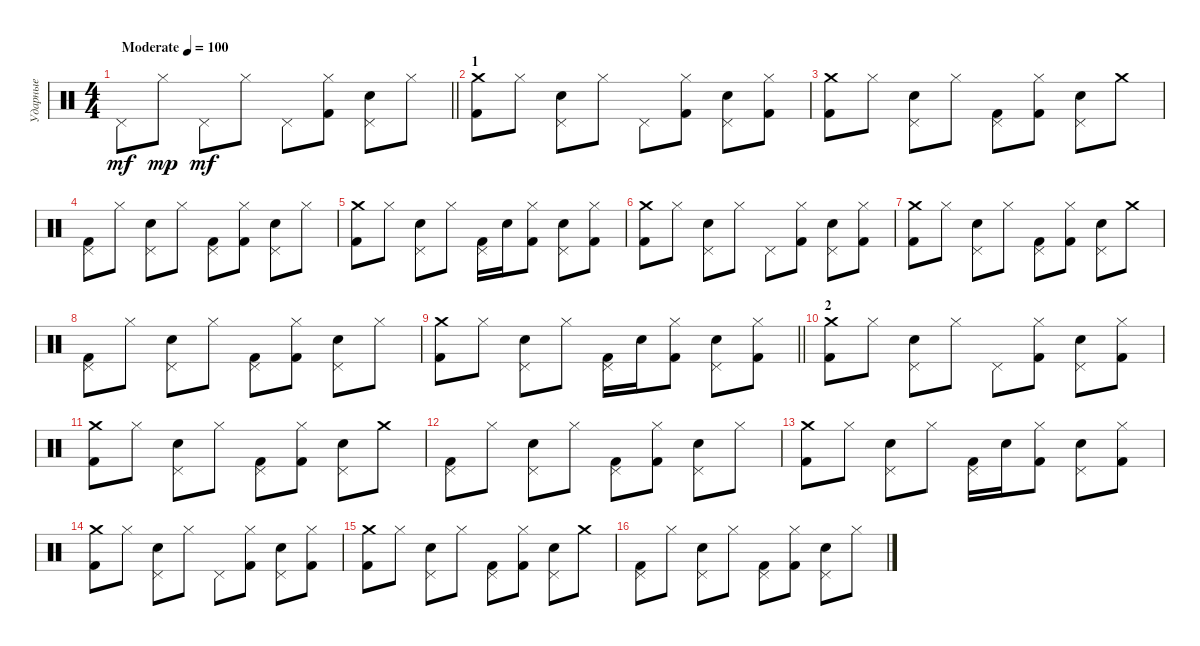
\track ("Ударные" "Ударные") {instrument percussion}
\staff {score}
\articulation defaults
\ts (4 4)
\tempo (100 "Moderate")
\clef neutral
\barLineRight lightlight
\ks c "Pedal Hi-Hat (hit)".8{dy mf} "Hi-Hat (closed)".8{dy mp} "Pedal Hi-Hat (hit)".8{dy mf} "Hi-Hat (closed)".8 "Pedal Hi-Hat (hit)".8
("Hi-Hat (closed)" "Kick (hit) 2").8 ("Pedal Hi-Hat (hit)" "Snare (hit) 2").8 "Hi-Hat (closed)".8 |
\section ("" "1")
("Crash medium (hit)" "Kick (hit) 2").8 "Hi-Hat (closed)".8 ("Pedal Hi-Hat (hit)" "Snare (hit) 2").8 "Hi-Hat (closed)".8 "Pedal Hi-Hat (hit)".8 ("Hi-Hat (closed)" "Kick (hit) 2").8 ("Pedal Hi-Hat (hit)" "Snare (hit) 2").8 ("Hi-Hat (closed)" "Kick (hit) 2").8 |
("Crash medium (hit)" "Kick (hit) 2").8 "Hi-Hat (closed)".8 ("Pedal Hi-Hat (hit)" "Snare (hit) 2").8 "Hi-Hat (closed)".8 ("Pedal Hi-Hat (hit)" "Kick (hit) 2").8 ("Hi-Hat (closed)" "Kick (hit) 2").8 ("Pedal Hi-Hat (hit)" "Snare (hit) 2").8 "Crash medium (hit)".8 |
("Pedal Hi-Hat (hit)" "Kick (hit) 2").8 "Hi-Hat (closed)".8 ("Pedal Hi-Hat (hit)" "Snare (hit) 2").8 "Hi-Hat (closed)".8 ("Pedal Hi-Hat (hit)" "Kick (hit) 2").8 ("Hi-Hat (closed)" "Kick (hit) 2").8 ("Pedal Hi-Hat (hit)" "Snare (hit) 2").8 "Hi-Hat (closed)".8 |
("Crash medium (hit)" "Kick (hit) 2").8 "Hi-Hat (closed)".8 ("Pedal Hi-Hat (hit)" "Snare (hit) 2").8 "Hi-Hat (closed)".8 ("Pedal Hi-Hat (hit)" "Kick (hit) 2").16 "Snare (hit) 2".16 ("Hi-Hat (closed)" "Kick (hit) 2").8 ("Pedal Hi-Hat (hit)" "Snare (hit) 2").8 ("Hi-Hat (closed)" "Kick (hit) 2").8 |
("Crash medium (hit)" "Kick (hit) 2").8 "Hi-Hat (closed)".8 ("Pedal Hi-Hat (hit)" "Snare (hit) 2").8 "Hi-Hat (closed)".8 "Pedal Hi-Hat (hit)".8 ("Hi-Hat (closed)" "Kick (hit) 2").8 ("Pedal Hi-Hat (hit)" "Snare (hit) 2").8 ("Hi-Hat (closed)" "Kick (hit) 2").8 |
("Crash medium (hit)" "Kick (hit) 2").8 "Hi-Hat (closed)".8 ("Pedal Hi-Hat (hit)" "Snare (hit) 2").8 "Hi-Hat (closed)".8 ("Pedal Hi-Hat (hit)" "Kick (hit) 2").8 ("Hi-Hat (closed)" "Kick (hit) 2").8 ("Pedal Hi-Hat (hit)" "Snare (hit) 2").8 "Crash medium (hit)".8 |
("Pedal Hi-Hat (hit)" "Kick (hit) 2").8 "Hi-Hat (closed)".8 ("Pedal Hi-Hat (hit)" "Snare (hit) 2").8 "Hi-Hat (closed)".8 ("Pedal Hi-Hat (hit)" "Kick (hit) 2").8 ("Hi-Hat (closed)" "Kick (hit) 2").8 ("Pedal Hi-Hat (hit)" "Snare (hit) 2").8 "Hi-Hat (closed)".8 |
\barLineRight lightlight
("Crash medium (hit)" "Kick (hit) 2").8 "Hi-Hat (closed)".8 ("Pedal Hi-Hat (hit)" "Snare (hit) 2").8 "Hi-Hat (closed)".8 ("Pedal Hi-Hat (hit)" "Kick (hit) 2").16 "Snare (hit) 2".16 ("Hi-Hat (closed)" "Kick (hit) 2").8 ("Pedal Hi-Hat (hit)" "Snare (hit) 2").8 ("Hi-Hat (closed)" "Kick (hit) 2").8 |
\section ("" "2")
("Crash medium (hit)" "Kick (hit) 2").8 "Hi-Hat (closed)".8 ("Pedal Hi-Hat (hit)" "Snare (hit) 2").8 "Hi-Hat (closed)".8 "Pedal Hi-Hat (hit)".8 ("Hi-Hat (closed)" "Kick (hit) 2").8 ("Pedal Hi-Hat (hit)" "Snare (hit) 2").8 ("Hi-Hat (closed)" "Kick (hit) 2").8 |
("Crash medium (hit)" "Kick (hit) 2").8 "Hi-Hat (closed)".8 ("Pedal Hi-Hat (hit)" "Snare (hit) 2").8 "Hi-Hat (closed)".8 ("Pedal Hi-Hat (hit)" "Kick (hit) 2").8 ("Hi-Hat (closed)" "Kick (hit) 2").8 ("Pedal Hi-Hat (hit)" "Snare (hit) 2").8 "Crash medium (hit)".8 |
("Pedal Hi-Hat (hit)" "Kick (hit) 2").8 "Hi-Hat (closed)".8 ("Pedal Hi-Hat (hit)" "Snare (hit) 2").8 "Hi-Hat (closed)".8 ("Pedal Hi-Hat (hit)" "Kick (hit) 2").8 ("Hi-Hat (closed)" "Kick (hit) 2").8 ("Pedal Hi-Hat (hit)" "Snare (hit) 2").8 "Hi-Hat (closed)".8 |
("Crash medium (hit)" "Kick (hit) 2").8 "Hi-Hat (closed)".8 ("Pedal Hi-Hat (hit)" "Snare (hit) 2").8 "Hi-Hat (closed)".8 ("Pedal Hi-Hat (hit)" "Kick (hit) 2").16 "Snare (hit) 2".16 ("Hi-Hat (closed)" "Kick (hit) 2").8 ("Pedal Hi-Hat (hit)" "Snare (hit) 2").8 ("Hi-Hat (closed)" "Kick (hit) 2").8 |
("Crash medium (hit)" "Kick (hit) 2").8 "Hi-Hat (closed)".8 ("Pedal Hi-Hat (hit)" "Snare (hit) 2").8 "Hi-Hat (closed)".8 "Pedal Hi-Hat (hit)".8 ("Hi-Hat (closed)" "Kick (hit) 2").8 ("Pedal Hi-Hat (hit)" "Snare (hit) 2").8 ("Hi-Hat (closed)" "Kick (hit) 2").8 |
("Crash medium (hit)" "Kick (hit) 2").8 "Hi-Hat (closed)".8 ("Pedal Hi-Hat (hit)" "Snare (hit) 2").8 "Hi-Hat (closed)".8 ("Pedal Hi-Hat (hit)" "Kick (hit) 2").8 ("Hi-Hat (closed)" "Kick (hit) 2").8 ("Pedal Hi-Hat (hit)" "Snare (hit) 2").8 "Crash medium (hit)".8 |
("Pedal Hi-Hat (hit)" "Kick (hit) 2").8 "Hi-Hat (closed)".8 ("Pedal Hi-Hat (hit)" "Snare (hit) 2").8 "Hi-Hat (closed)".8 ("Pedal Hi-Hat (hit)" "Kick (hit) 2").8 ("Hi-Hat (closed)" "Kick (hit) 2").8 ("Pedal Hi-Hat (hit)" "Snare (hit) 2").8 "Hi-Hat (closed)".8
